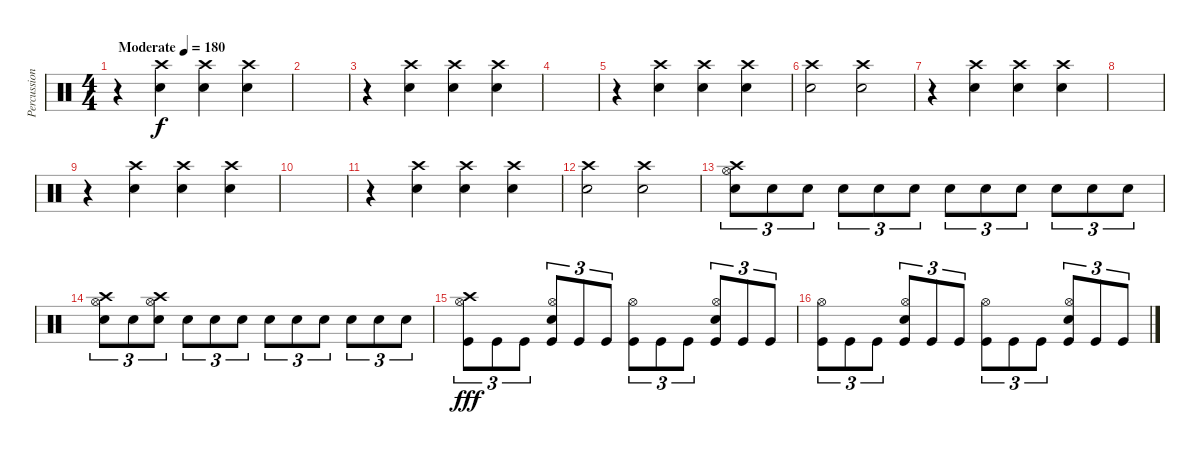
\track ("Percussion" "Percussion") {instrument percussion}
\staff {score}
\articulation defaults
\ts (4 4)
\section ("" "")
\tempo (180 "Moderate")
\clef neutral
\ks c
r.4{dy f} ("Crash high (hit)" "Electric Snare (hit)").4 ("Crash high (hit)" "Electric Snare (hit)").4 ("Crash high (hit)" "Electric Snare (hit)").4 |
|
r.4 ("Crash high (hit)" "Electric Snare (hit)").4 ("Crash high (hit)" "Electric Snare (hit)").4 ("Crash high (hit)" "Electric Snare (hit)").4 |
|
r.4 ("Crash high (hit)" "Electric Snare (hit)").4 ("Crash high (hit)" "Electric Snare (hit)").4 ("Crash high (hit)" "Electric Snare (hit)").4 |
("Crash high (hit)" "Electric Snare (hit)").2 ("Crash high (hit)" "Electric Snare (hit)").2 |
r.4 ("Crash high (hit)" "Electric Snare (hit)").4 ("Crash high (hit)" "Electric Snare (hit)").4 ("Crash high (hit)" "Electric Snare (hit)").4 |
|
r.4 ("Crash high (hit)" "Electric Snare (hit)").4 ("Crash high (hit)" "Electric Snare (hit)").4 ("Crash high (hit)" "Electric Snare (hit)").4 |
|
r.4 ("Crash high (hit)" "Electric Snare (hit)").4 ("Crash high (hit)" "Electric Snare (hit)").4 ("Crash high (hit)" "Electric Snare (hit)").4 |
("Crash high (hit)" "Electric Snare (hit)").2 ("Crash high (hit)" "Electric Snare (hit)").2 |
("Crash high (hit)" "Hi-Hat (open)" "Electric Snare (hit)").8{tu (3 2)} "Electric Snare (hit)".8{tu (3 2)} "Electric Snare (hit)".8{tu (3 2)} "Electric Snare (hit)".8{tu (3 2)} "Electric Snare (hit)".8{tu (3 2)} "Electric Snare (hit)".8{tu (3 2)} "Electric Snare (hit)".8{tu (3 2)} "Electric Snare (hit)".8{tu (3 2)} "Electric Snare (hit)".8{tu (3 2)} "Electric Snare (hit)".8{tu (3 2)} "Electric Snare (hit)".8{tu (3 2)} "Electric Snare (hit)".8{tu (3 2)} |
("Crash high (hit)" "Hi-Hat (open)" "Electric Snare (hit)").8{tu (3 2)} "Electric Snare (hit)".8{tu (3 2)} ("Crash high (hit)" "Hi-Hat (open)" "Electric Snare (hit)").8{tu (3 2)} "Electric Snare (hit)".8{tu (3 2)} "Electric Snare (hit)".8{tu (3 2)} "Electric Snare (hit)".8{tu (3 2)} "Electric Snare (hit)".8{tu (3 2)} "Electric Snare (hit)".8{tu (3 2)} "Electric Snare (hit)".8{tu (3 2)} "Electric Snare (hit)".8{tu (3 2)} "Electric Snare (hit)".8{tu (3 2)} "Electric Snare (hit)".8{tu (3 2)} |
("Crash high (hit)" "Hi-Hat (open)" "Kick (hit)").8{tu (3 2) dy fff} "Kick (hit)".8{tu (3 2)} "Kick (hit)".8{tu (3 2)} ("Hi-Hat (open)" "Electric Snare (hit)" "Kick (hit)").8{tu (3 2)} "Kick (hit)".8{tu (3 2)} "Kick (hit)".8{tu (3 2)} ("Hi-Hat (open)" "Kick (hit)").8{tu (3 2)} "Kick (hit)".8{tu (3 2)} "Kick (hit)".8{tu (3 2)} ("Hi-Hat (open)" "Electric Snare (hit)" "Kick (hit)").8{tu (3 2)} "Kick (hit)".8{tu (3 2)} "Kick (hit)".8{tu (3 2)} |
("Hi-Hat (open)" "Kick (hit)").8{tu (3 2)} "Kick (hit)".8{tu (3 2)} "Kick (hit)".8{tu (3 2)} ("Hi-Hat (open)" "Electric Snare (hit)" "Kick (hit)").8{tu (3 2)} "Kick (hit)".8{tu (3 2)} "Kick (hit)".8{tu (3 2)} ("Hi-Hat (open)" "Kick (hit)").8{tu (3 2)} "Kick (hit)".8{tu (3 2)} "Kick (hit)".8{tu (3 2)} ("Hi-Hat (open)" "Electric Snare (hit)" "Kick (hit)").8{tu (3 2)} "Kick (hit)".8{tu (3 2)} "Kick (hit)".8{tu (3 2)}
